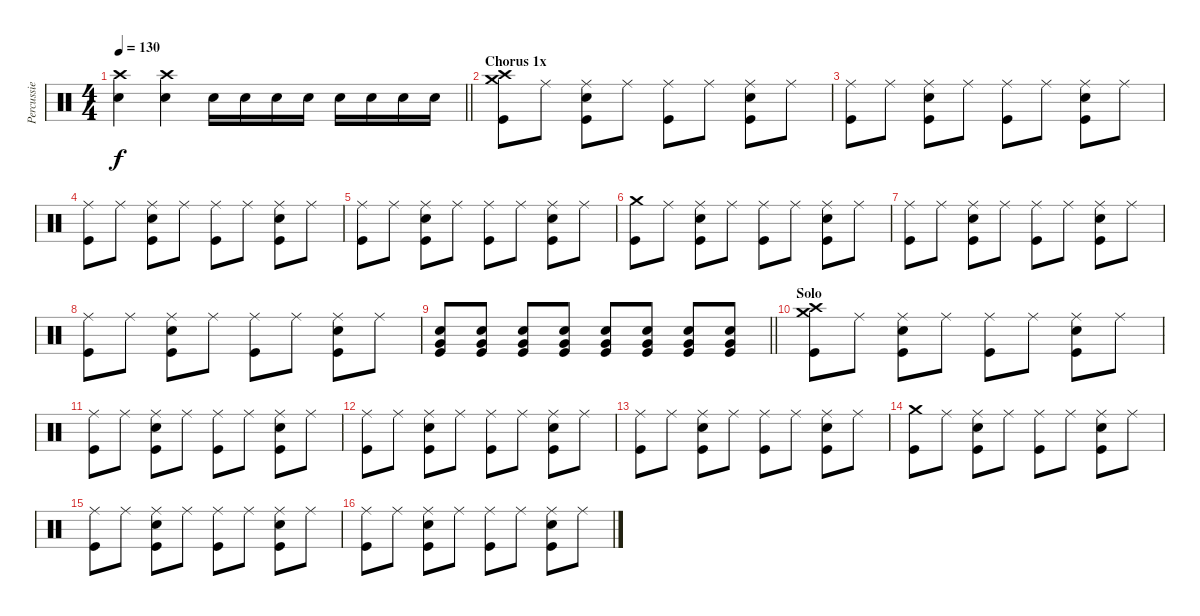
\track ("Percussie" "Percussie") {instrument percussion}
\staff {score}
\articulation defaults
\ts (4 4)
\tempo 130
\clef neutral
\barLineRight lightlight
\ks c
("Snare (hit) 2" "Crash high (hit)").4{dy f} ("Snare (hit) 2" "Crash high (hit)").4 "Snare (hit) 2".16 "Snare (hit) 2".16 "Snare (hit) 2".16 "Snare (hit) 2".16 "Snare (hit) 2".16 "Snare (hit) 2".16 "Snare (hit) 2".16 "Snare (hit) 2".16 |
\section ("" "Chorus 1x")
("Crash high (hit)" "Crash medium (hit)" "Kick (hit)").8 "Ride (middle)".8 ("Ride (middle)" "Snare (hit) 2" "Kick (hit)").8 "Ride (middle)".8 ("Ride (middle)" "Kick (hit)").8 "Ride (middle)".8 ("Ride (middle)" "Snare (hit) 2" "Kick (hit)").8 "Ride (middle)".8 |
("Ride (middle)" "Kick (hit)").8 "Ride (middle)".8 ("Ride (middle)" "Snare (hit) 2" "Kick (hit)").8 "Ride (middle)".8 ("Ride (middle)" "Kick (hit)").8 "Ride (middle)".8 ("Ride (middle)" "Snare (hit) 2" "Kick (hit)").8 "Ride (middle)".8 |
("Ride (middle)" "Kick (hit)").8 "Ride (middle)".8 ("Ride (middle)" "Snare (hit) 2" "Kick (hit)").8 "Ride (middle)".8 ("Ride (middle)" "Kick (hit)").8 "Ride (middle)".8 ("Ride (middle)" "Snare (hit) 2" "Kick (hit)").8 "Ride (middle)".8 |
("Ride (middle)" "Kick (hit)").8 "Ride (middle)".8 ("Ride (middle)" "Snare (hit) 2" "Kick (hit)").8 "Ride (middle)".8 ("Ride (middle)" "Kick (hit)").8 "Ride (middle)".8 ("Ride (middle)" "Snare (hit) 2" "Kick (hit)").8 "Ride (middle)".8 |
("Crash medium (hit)" "Kick (hit)").8 "Ride (middle)".8 ("Ride (middle)" "Snare (hit) 2" "Kick (hit)").8 "Ride (middle)".8 ("Ride (middle)" "Kick (hit)").8 "Ride (middle)".8 ("Ride (middle)" "Snare (hit) 2" "Kick (hit)").8 "Ride (middle)".8 |
("Ride (middle)" "Kick (hit)").8 "Ride (middle)".8 ("Ride (middle)" "Snare (hit) 2" "Kick (hit)").8 "Ride (middle)".8 ("Ride (middle)" "Kick (hit)").8 "Ride (middle)".8 ("Ride (middle)" "Snare (hit) 2" "Kick (hit)").8 "Ride (middle)".8 |
("Ride (middle)" "Kick (hit)").8 "Ride (middle)".8 ("Ride (middle)" "Snare (hit) 2" "Kick (hit)").8 "Ride (middle)".8 ("Ride (middle)" "Kick (hit)").8 "Ride (middle)".8 ("Ride (middle)" "Snare (hit) 2" "Kick (hit)").8 "Ride (middle)".8 |
\barLineRight lightlight
("Snare (hit) 2" "Very Low Tom (hit)" "Kick (hit)").8 ("Snare (hit) 2" "Very Low Tom (hit)" "Kick (hit)").8 ("Snare (hit) 2" "Very Low Tom (hit)" "Kick (hit)").8 ("Snare (hit) 2" "Very Low Tom (hit)" "Kick (hit)").8 ("Snare (hit) 2" "Very Low Tom (hit)" "Kick (hit)").8 ("Snare (hit) 2" "Very Low Tom (hit)" "Kick (hit)").8 ("Snare (hit) 2" "Very Low Tom (hit)" "Kick (hit)").8 ("Snare (hit) 2" "Very Low Tom (hit)" "Kick (hit)").8 |
\section ("" "Solo")
("Crash high (hit)" "Crash medium (hit)" "Kick (hit)").8 "Ride (middle)".8 ("Ride (middle)" "Snare (hit) 2" "Kick (hit)").8 "Ride (middle)".8 ("Ride (middle)" "Kick (hit)").8 "Ride (middle)".8 ("Ride (middle)" "Snare (hit) 2" "Kick (hit)").8 "Ride (middle)".8 |
("Ride (middle)" "Kick (hit)").8 "Ride (middle)".8 ("Ride (middle)" "Snare (hit) 2" "Kick (hit)").8 "Ride (middle)".8 ("Ride (middle)" "Kick (hit)").8 "Ride (middle)".8 ("Ride (middle)" "Snare (hit) 2" "Kick (hit)").8 "Ride (middle)".8 |
("Ride (middle)" "Kick (hit)").8 "Ride (middle)".8 ("Ride (middle)" "Snare (hit) 2" "Kick (hit)").8 "Ride (middle)".8 ("Ride (middle)" "Kick (hit)").8 "Ride (middle)".8 ("Ride (middle)" "Snare (hit) 2" "Kick (hit)").8 "Ride (middle)".8 |
("Ride (middle)" "Kick (hit)").8 "Ride (middle)".8 ("Ride (middle)" "Snare (hit) 2" "Kick (hit)").8 "Ride (middle)".8 ("Ride (middle)" "Kick (hit)").8 "Ride (middle)".8 ("Ride (middle)" "Snare (hit) 2" "Kick (hit)").8 "Ride (middle)".8 |
("Crash medium (hit)" "Kick (hit)").8 "Ride (middle)".8 ("Ride (middle)" "Snare (hit) 2" "Kick (hit)").8 "Ride (middle)".8 ("Ride (middle)" "Kick (hit)").8 "Ride (middle)".8 ("Ride (middle)" "Snare (hit) 2" "Kick (hit)").8 "Ride (middle)".8 |
("Ride (middle)" "Kick (hit)").8 "Ride (middle)".8 ("Ride (middle)" "Snare (hit) 2" "Kick (hit)").8 "Ride (middle)".8 ("Ride (middle)" "Kick (hit)").8 "Ride (middle)".8 ("Ride (middle)" "Snare (hit) 2" "Kick (hit)").8 "Ride (middle)".8 |
("Ride (middle)" "Kick (hit)").8 "Ride (middle)".8 ("Ride (middle)" "Snare (hit) 2" "Kick (hit)").8 "Ride (middle)".8 ("Ride (middle)" "Kick (hit)").8 "Ride (middle)".8 ("Ride (middle)" "Snare (hit) 2" "Kick (hit)").8 "Ride (middle)".8
